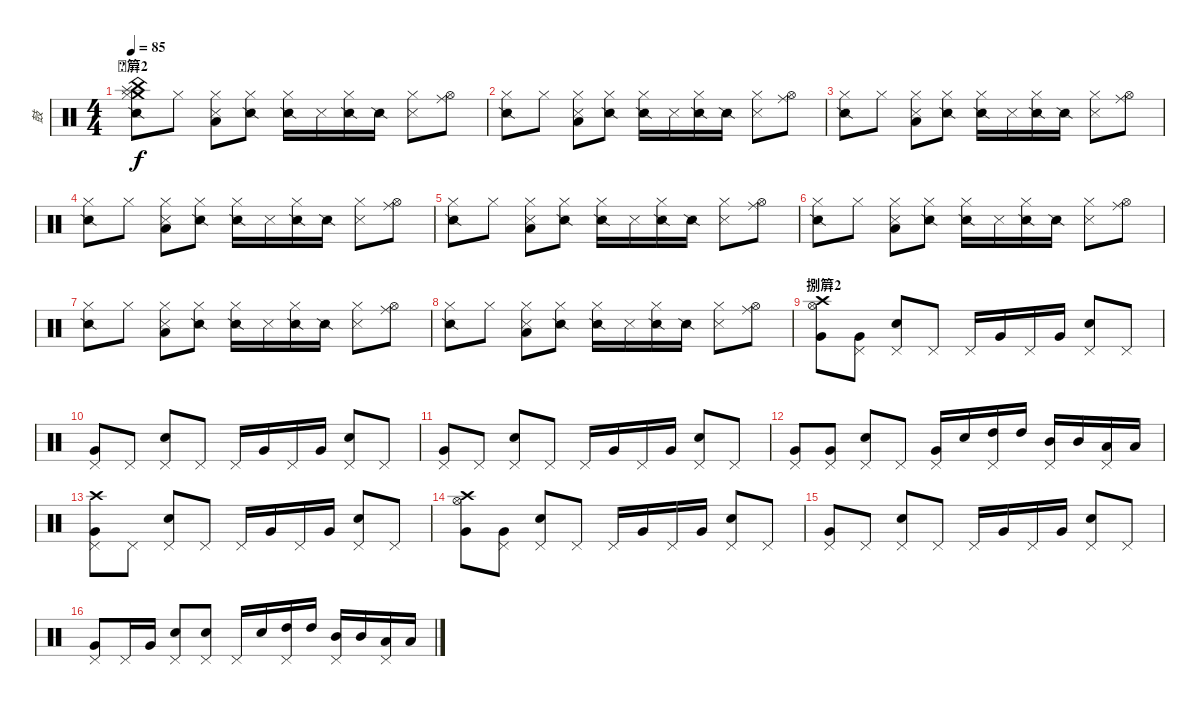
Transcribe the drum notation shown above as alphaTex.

\track ("鼓" "鼓") {instrument percussion}
\staff {score}
\articulation defaults
\ts (4 4)
\section ("" "簈2")
\tempo 85
\clef neutral
\ks c
("Crash medium (hit)" "Splash (hit)" "China (hit)" "Snare (side stick) 2" "Hi-Hat (closed)").8{dy f} "Hi-Hat (closed)".8 ("Metronome (hit)" "Low Floor Tom (hit)" "Hi-Hat (closed)").8 ("Snare (side stick) 2" "Hi-Hat (closed)").8 ("Snare (side stick) 2" "Hi-Hat (closed)").16 "Metronome (hit)".16 ("Snare (side stick) 2" "Hi-Hat (closed)").16 "Snare (side stick) 2".16 ("Metronome (hit)" "Hi-Hat (closed)").8 ("Ride (middle)" "Hi-Hat (open)").8 |
("Snare (side stick) 2" "Hi-Hat (closed)").8 "Hi-Hat (closed)".8 ("Metronome (hit)" "Low Floor Tom (hit)" "Hi-Hat (closed)").8 ("Snare (side stick) 2" "Hi-Hat (closed)").8 ("Snare (side stick) 2" "Hi-Hat (closed)").16 "Metronome (hit)".16 ("Snare (side stick) 2" "Hi-Hat (closed)").16 "Snare (side stick) 2".16 ("Metronome (hit)" "Hi-Hat (closed)").8 ("Ride (middle)" "Hi-Hat (open)").8 |
("Snare (side stick) 2" "Hi-Hat (closed)").8 "Hi-Hat (closed)".8 ("Metronome (hit)" "Low Floor Tom (hit)" "Hi-Hat (closed)").8 ("Snare (side stick) 2" "Hi-Hat (closed)").8 ("Snare (side stick) 2" "Hi-Hat (closed)").16 "Metronome (hit)".16 ("Snare (side stick) 2" "Hi-Hat (closed)").16 "Snare (side stick) 2".16 ("Metronome (hit)" "Hi-Hat (closed)").8 ("Ride (middle)" "Hi-Hat (open)").8 |
("Snare (side stick) 2" "Hi-Hat (closed)").8 "Hi-Hat (closed)".8 ("Metronome (hit)" "Low Floor Tom (hit)" "Hi-Hat (closed)").8 ("Snare (side stick) 2" "Hi-Hat (closed)").8 ("Snare (side stick) 2" "Hi-Hat (closed)").16 "Metronome (hit)".16 ("Snare (side stick) 2" "Hi-Hat (closed)").16 "Snare (side stick) 2".16 ("Metronome (hit)" "Hi-Hat (closed)").8 ("Ride (middle)" "Hi-Hat (open)").8 |
("Snare (side stick) 2" "Hi-Hat (closed)").8 "Hi-Hat (closed)".8 ("Metronome (hit)" "Low Floor Tom (hit)" "Hi-Hat (closed)").8 ("Snare (side stick) 2" "Hi-Hat (closed)").8 ("Snare (side stick) 2" "Hi-Hat (closed)").16 "Metronome (hit)".16 ("Snare (side stick) 2" "Hi-Hat (closed)").16 "Snare (side stick) 2".16 ("Metronome (hit)" "Hi-Hat (closed)").8 ("Ride (middle)" "Hi-Hat (open)").8 |
("Snare (side stick) 2" "Hi-Hat (closed)").8 "Hi-Hat (closed)".8 ("Metronome (hit)" "Low Floor Tom (hit)" "Hi-Hat (closed)").8 ("Snare (side stick) 2" "Hi-Hat (closed)").8 ("Snare (side stick) 2" "Hi-Hat (closed)").16 "Metronome (hit)".16 ("Snare (side stick) 2" "Hi-Hat (closed)").16 "Snare (side stick) 2".16 ("Metronome (hit)" "Hi-Hat (closed)").8 ("Ride (middle)" "Hi-Hat (open)").8 |
("Snare (side stick) 2" "Hi-Hat (closed)").8 "Hi-Hat (closed)".8 ("Metronome (hit)" "Low Floor Tom (hit)" "Hi-Hat (closed)").8 ("Snare (side stick) 2" "Hi-Hat (closed)").8 ("Snare (side stick) 2" "Hi-Hat (closed)").16 "Metronome (hit)".16 ("Snare (side stick) 2" "Hi-Hat (closed)").16 "Snare (side stick) 2".16 ("Metronome (hit)" "Hi-Hat (closed)").8 ("Ride (middle)" "Hi-Hat (open)").8 |
("Snare (side stick) 2" "Hi-Hat (closed)").8 "Hi-Hat (closed)".8 ("Metronome (hit)" "Low Floor Tom (hit)" "Hi-Hat (closed)").8 ("Snare (side stick) 2" "Hi-Hat (closed)").8 ("Snare (side stick) 2" "Hi-Hat (closed)").16 "Metronome (hit)".16 ("Snare (side stick) 2" "Hi-Hat (closed)").16 "Snare (side stick) 2".16 ("Metronome (hit)" "Hi-Hat (closed)").8 ("Ride (middle)" "Hi-Hat (open)").8 |
\section ("" "捌簈2")
("Crash high (hit)" "Very Low Tom (hit)" "Hi-Hat (open)").8 ("Very Low Tom (hit)" "Pedal Hi-Hat (hit)").8 ("Snare (hit) 2" "Pedal Hi-Hat (hit)").8 "Pedal Hi-Hat (hit)".8 "Pedal Hi-Hat (hit)".16 "Very Low Tom (hit)".16 "Pedal Hi-Hat (hit)".16 "Very Low Tom (hit)".16 ("Snare (hit) 2" "Pedal Hi-Hat (hit)").8 "Pedal Hi-Hat (hit)".8 |
("Very Low Tom (hit)" "Pedal Hi-Hat (hit)").8 "Pedal Hi-Hat (hit)".8 ("Snare (hit) 2" "Pedal Hi-Hat (hit)").8 "Pedal Hi-Hat (hit)".8 "Pedal Hi-Hat (hit)".16 "Very Low Tom (hit)".16 "Pedal Hi-Hat (hit)".16 "Very Low Tom (hit)".16 ("Snare (hit) 2" "Pedal Hi-Hat (hit)").8 "Pedal Hi-Hat (hit)".8 |
("Very Low Tom (hit)" "Pedal Hi-Hat (hit)").8 "Pedal Hi-Hat (hit)".8 ("Snare (hit) 2" "Pedal Hi-Hat (hit)").8 "Pedal Hi-Hat (hit)".8 "Pedal Hi-Hat (hit)".16 "Very Low Tom (hit)".16 "Pedal Hi-Hat (hit)".16 "Very Low Tom (hit)".16 ("Snare (hit) 2" "Pedal Hi-Hat (hit)").8 "Pedal Hi-Hat (hit)".8 |
("Very Low Tom (hit)" "Pedal Hi-Hat (hit)").8 ("Very Low Tom (hit)" "Pedal Hi-Hat (hit)").8 ("Snare (hit) 2" "Pedal Hi-Hat (hit)").8 "Pedal Hi-Hat (hit)".8 ("Very Low Tom (hit)" "Pedal Hi-Hat (hit)").16 "Snare (hit) 2".16 ("High Tom (hit)" "Pedal Hi-Hat (hit)").16 "High Tom (hit)".16 ("Mid Tom (hit)" "Pedal Hi-Hat (hit)").16 "Mid Tom (hit)".16 ("Low Tom (hit)" "Pedal Hi-Hat (hit)").16 "Low Tom (hit)".16 |
("Crash high (hit)" "Very Low Tom (hit)" "Pedal Hi-Hat (hit)").8 "Pedal Hi-Hat (hit)".8 ("Snare (hit) 2" "Pedal Hi-Hat (hit)").8 "Pedal Hi-Hat (hit)".8 "Pedal Hi-Hat (hit)".16 "Very Low Tom (hit)".16 "Pedal Hi-Hat (hit)".16 "Very Low Tom (hit)".16 ("Snare (hit) 2" "Pedal Hi-Hat (hit)").8 "Pedal Hi-Hat (hit)".8 |
("Crash high (hit)" "Very Low Tom (hit)" "Hi-Hat (open)").8 ("Very Low Tom (hit)" "Pedal Hi-Hat (hit)").8 ("Snare (hit) 2" "Pedal Hi-Hat (hit)").8 "Pedal Hi-Hat (hit)".8 "Pedal Hi-Hat (hit)".16 "Very Low Tom (hit)".16 "Pedal Hi-Hat (hit)".16 "Very Low Tom (hit)".16 ("Snare (hit) 2" "Pedal Hi-Hat (hit)").8 "Pedal Hi-Hat (hit)".8 |
("Very Low Tom (hit)" "Pedal Hi-Hat (hit)").8 "Pedal Hi-Hat (hit)".8 ("Snare (hit) 2" "Pedal Hi-Hat (hit)").8 "Pedal Hi-Hat (hit)".8 "Pedal Hi-Hat (hit)".16 "Very Low Tom (hit)".16 "Pedal Hi-Hat (hit)".16 "Very Low Tom (hit)".16 ("Snare (hit) 2" "Pedal Hi-Hat (hit)").8 "Pedal Hi-Hat (hit)".8 |
("Very Low Tom (hit)" "Pedal Hi-Hat (hit)").8 "Pedal Hi-Hat (hit)".16 "Very Low Tom (hit)".16 ("Snare (hit) 2" "Pedal Hi-Hat (hit)").8 ("Snare (hit) 2" "Pedal Hi-Hat (hit)").8 "Pedal Hi-Hat (hit)".16 "Snare (hit) 2".16 ("High Tom (hit)" "Pedal Hi-Hat (hit)").16 "High Tom (hit)".16 ("Mid Tom (hit)" "Pedal Hi-Hat (hit)").16 "Mid Tom (hit)".16 ("Low Tom (hit)" "Pedal Hi-Hat (hit)").16 "Low Tom (hit)".16
